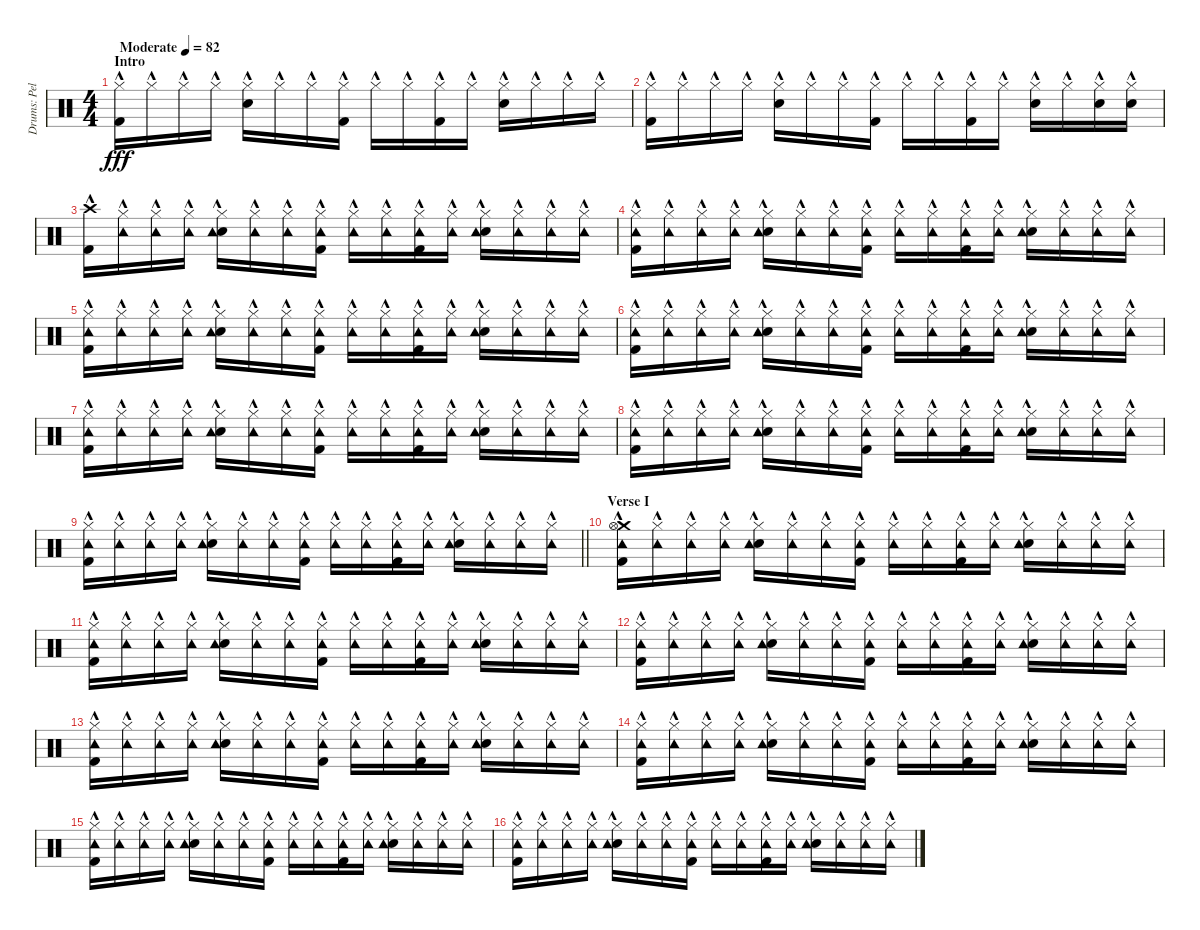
\track ("Drums: Pelle" "Drums: Pel") {instrument percussion}
\staff {score}
\articulation defaults
\ts (4 4)
\section ("" "Intro")
\tempo (82 "Moderate")
\clef neutral
\ks c
("Hi-Hat (closed)"{hac} "Kick (hit) 2"{hac}).16{dy fff} "Hi-Hat (closed)"{hac}.16 "Hi-Hat (closed)"{hac}.16 "Hi-Hat (closed)"{hac}.16 ("Hi-Hat (closed)"{hac} "Snare (hit) 2"{hac}).16 "Hi-Hat (closed)"{hac}.16 "Hi-Hat (closed)"{hac}.16 ("Hi-Hat (closed)"{hac} "Kick (hit) 2"{hac}).16 "Hi-Hat (closed)"{hac}.16 "Hi-Hat (closed)"{hac}.16 ("Hi-Hat (closed)"{hac} "Kick (hit) 2"{hac}).16 "Hi-Hat (closed)"{hac}.16 ("Hi-Hat (closed)"{hac} "Snare (hit) 2"{hac}).16 "Hi-Hat (closed)"{hac}.16 "Hi-Hat (closed)"{hac}.16 "Hi-Hat (closed)"{hac}.16 |
("Hi-Hat (closed)"{hac} "Kick (hit) 2"{hac}).16 "Hi-Hat (closed)"{hac}.16 "Hi-Hat (closed)"{hac}.16 "Hi-Hat (closed)"{hac}.16 ("Hi-Hat (closed)"{hac} "Snare (hit) 2"{hac}).16 "Hi-Hat (closed)"{hac}.16 "Hi-Hat (closed)"{hac}.16 ("Hi-Hat (closed)"{hac} "Kick (hit) 2"{hac}).16 "Hi-Hat (closed)"{hac}.16 "Hi-Hat (closed)"{hac}.16 ("Hi-Hat (closed)"{hac} "Kick (hit) 2"{hac}).16 "Hi-Hat (closed)"{hac}.16 ("Hi-Hat (closed)"{hac} "Snare (hit) 2"{hac}).16 "Hi-Hat (closed)"{hac}.16 ("Hi-Hat (closed)"{hac} "Snare (hit) 2"{hac}).16 ("Hi-Hat (closed)"{hac} "Snare (hit) 2"{hac}).16 |
("Crash high (hit)"{hac} "Kick (hit) 2"{hac}).16 ("Hi-Hat (closed)"{hac} "Tambourine (hit)"{hac}).16 ("Hi-Hat (closed)"{hac} "Tambourine (hit)"{hac}).16 ("Hi-Hat (closed)"{hac} "Tambourine (hit)"{hac}).16 ("Hi-Hat (closed)"{hac} "Snare (hit) 2"{hac} "Tambourine (hit)"{hac}).16 ("Hi-Hat (closed)"{hac} "Tambourine (hit)"{hac}).16 ("Hi-Hat (closed)"{hac} "Tambourine (hit)"{hac}).16 ("Hi-Hat (closed)"{hac} "Tambourine (hit)"{hac} "Kick (hit) 2"{hac}).16 ("Hi-Hat (closed)"{hac} "Tambourine (hit)"{hac}).16 ("Hi-Hat (closed)"{hac} "Tambourine (hit)"{hac}).16 ("Hi-Hat (closed)"{hac} "Tambourine (hit)"{hac} "Kick (hit) 2"{hac}).16 ("Hi-Hat (closed)"{hac} "Tambourine (hit)"{hac}).16 ("Hi-Hat (closed)"{hac} "Snare (hit) 2"{hac} "Tambourine (hit)"{hac}).16 ("Hi-Hat (closed)"{hac} "Tambourine (hit)"{hac}).16 ("Hi-Hat (closed)"{hac} "Tambourine (hit)"{hac}).16 ("Hi-Hat (closed)"{hac} "Tambourine (hit)"{hac}).16 |
("Hi-Hat (closed)"{hac} "Tambourine (hit)"{hac} "Kick (hit) 2"{hac}).16 ("Hi-Hat (closed)"{hac} "Tambourine (hit)"{hac}).16 ("Hi-Hat (closed)"{hac} "Tambourine (hit)"{hac}).16 ("Hi-Hat (closed)"{hac} "Tambourine (hit)"{hac}).16 ("Hi-Hat (closed)"{hac} "Snare (hit) 2"{hac} "Tambourine (hit)"{hac}).16 ("Hi-Hat (closed)"{hac} "Tambourine (hit)"{hac}).16 ("Hi-Hat (closed)"{hac} "Tambourine (hit)"{hac}).16 ("Hi-Hat (closed)"{hac} "Tambourine (hit)"{hac} "Kick (hit) 2"{hac}).16 ("Hi-Hat (closed)"{hac} "Tambourine (hit)"{hac}).16 ("Hi-Hat (closed)"{hac} "Tambourine (hit)"{hac}).16 ("Hi-Hat (closed)"{hac} "Tambourine (hit)"{hac} "Kick (hit) 2"{hac}).16 ("Hi-Hat (closed)"{hac} "Tambourine (hit)"{hac}).16 ("Hi-Hat (closed)"{hac} "Snare (hit) 2"{hac} "Tambourine (hit)"{hac}).16 ("Hi-Hat (closed)"{hac} "Tambourine (hit)"{hac}).16 ("Hi-Hat (closed)"{hac} "Tambourine (hit)"{hac}).16 ("Hi-Hat (closed)"{hac} "Tambourine (hit)"{hac}).16 |
("Hi-Hat (closed)"{hac} "Tambourine (hit)"{hac} "Kick (hit) 2"{hac}).16 ("Hi-Hat (closed)"{hac} "Tambourine (hit)"{hac}).16 ("Hi-Hat (closed)"{hac} "Tambourine (hit)"{hac}).16 ("Hi-Hat (closed)"{hac} "Tambourine (hit)"{hac}).16 ("Hi-Hat (closed)"{hac} "Snare (hit) 2"{hac} "Tambourine (hit)"{hac}).16 ("Hi-Hat (closed)"{hac} "Tambourine (hit)"{hac}).16 ("Hi-Hat (closed)"{hac} "Tambourine (hit)"{hac}).16 ("Hi-Hat (closed)"{hac} "Tambourine (hit)"{hac} "Kick (hit) 2"{hac}).16 ("Hi-Hat (closed)"{hac} "Tambourine (hit)"{hac}).16 ("Hi-Hat (closed)"{hac} "Tambourine (hit)"{hac}).16 ("Hi-Hat (closed)"{hac} "Tambourine (hit)"{hac} "Kick (hit) 2"{hac}).16 ("Hi-Hat (closed)"{hac} "Tambourine (hit)"{hac}).16 ("Hi-Hat (closed)"{hac} "Snare (hit) 2"{hac} "Tambourine (hit)"{hac}).16 ("Hi-Hat (closed)"{hac} "Tambourine (hit)"{hac}).16 ("Hi-Hat (closed)"{hac} "Tambourine (hit)"{hac}).16 ("Hi-Hat (closed)"{hac} "Tambourine (hit)"{hac}).16 |
("Hi-Hat (closed)"{hac} "Tambourine (hit)"{hac} "Kick (hit) 2"{hac}).16 ("Hi-Hat (closed)"{hac} "Tambourine (hit)"{hac}).16 ("Hi-Hat (closed)"{hac} "Tambourine (hit)"{hac}).16 ("Hi-Hat (closed)"{hac} "Tambourine (hit)"{hac}).16 ("Hi-Hat (closed)"{hac} "Snare (hit) 2"{hac} "Tambourine (hit)"{hac}).16 ("Hi-Hat (closed)"{hac} "Tambourine (hit)"{hac}).16 ("Hi-Hat (closed)"{hac} "Tambourine (hit)"{hac}).16 ("Hi-Hat (closed)"{hac} "Tambourine (hit)"{hac} "Kick (hit) 2"{hac}).16 ("Hi-Hat (closed)"{hac} "Tambourine (hit)"{hac}).16 ("Hi-Hat (closed)"{hac} "Tambourine (hit)"{hac}).16 ("Hi-Hat (closed)"{hac} "Tambourine (hit)"{hac} "Kick (hit) 2"{hac}).16 ("Hi-Hat (closed)"{hac} "Tambourine (hit)"{hac}).16 ("Hi-Hat (closed)"{hac} "Snare (hit) 2"{hac} "Tambourine (hit)"{hac}).16 ("Hi-Hat (closed)"{hac} "Tambourine (hit)"{hac}).16 ("Hi-Hat (closed)"{hac} "Tambourine (hit)"{hac}).16 ("Hi-Hat (closed)"{hac} "Tambourine (hit)"{hac}).16 |
("Hi-Hat (closed)"{hac} "Tambourine (hit)"{hac} "Kick (hit) 2"{hac}).16 ("Hi-Hat (closed)"{hac} "Tambourine (hit)"{hac}).16 ("Hi-Hat (closed)"{hac} "Tambourine (hit)"{hac}).16 ("Hi-Hat (closed)"{hac} "Tambourine (hit)"{hac}).16 ("Hi-Hat (closed)"{hac} "Snare (hit) 2"{hac} "Tambourine (hit)"{hac}).16 ("Hi-Hat (closed)"{hac} "Tambourine (hit)"{hac}).16 ("Hi-Hat (closed)"{hac} "Tambourine (hit)"{hac}).16 ("Hi-Hat (closed)"{hac} "Tambourine (hit)"{hac} "Kick (hit) 2"{hac}).16 ("Hi-Hat (closed)"{hac} "Tambourine (hit)"{hac}).16 ("Hi-Hat (closed)"{hac} "Tambourine (hit)"{hac}).16 ("Hi-Hat (closed)"{hac} "Tambourine (hit)"{hac} "Kick (hit) 2"{hac}).16 ("Hi-Hat (closed)"{hac} "Tambourine (hit)"{hac}).16 ("Hi-Hat (closed)"{hac} "Snare (hit) 2"{hac} "Tambourine (hit)"{hac}).16 ("Hi-Hat (closed)"{hac} "Tambourine (hit)"{hac}).16 ("Hi-Hat (closed)"{hac} "Tambourine (hit)"{hac}).16 ("Hi-Hat (closed)"{hac} "Tambourine (hit)"{hac}).16 |
("Hi-Hat (closed)"{hac} "Tambourine (hit)"{hac} "Kick (hit) 2"{hac}).16 ("Hi-Hat (closed)"{hac} "Tambourine (hit)"{hac}).16 ("Hi-Hat (closed)"{hac} "Tambourine (hit)"{hac}).16 ("Hi-Hat (closed)"{hac} "Tambourine (hit)"{hac}).16 ("Hi-Hat (closed)"{hac} "Snare (hit) 2"{hac} "Tambourine (hit)"{hac}).16 ("Hi-Hat (closed)"{hac} "Tambourine (hit)"{hac}).16 ("Hi-Hat (closed)"{hac} "Tambourine (hit)"{hac}).16 ("Hi-Hat (closed)"{hac} "Tambourine (hit)"{hac} "Kick (hit) 2"{hac}).16 ("Hi-Hat (closed)"{hac} "Tambourine (hit)"{hac}).16 ("Hi-Hat (closed)"{hac} "Tambourine (hit)"{hac}).16 ("Hi-Hat (closed)"{hac} "Tambourine (hit)"{hac} "Kick (hit) 2"{hac}).16 ("Hi-Hat (closed)"{hac} "Tambourine (hit)"{hac}).16 ("Hi-Hat (closed)"{hac} "Snare (hit) 2"{hac} "Tambourine (hit)"{hac}).16 ("Hi-Hat (closed)"{hac} "Tambourine (hit)"{hac}).16 ("Hi-Hat (closed)"{hac} "Tambourine (hit)"{hac}).16 ("Hi-Hat (closed)"{hac} "Tambourine (hit)"{hac}).16 |
\barLineRight lightlight
("Hi-Hat (closed)"{hac} "Tambourine (hit)"{hac} "Kick (hit) 2"{hac}).16 ("Hi-Hat (closed)"{hac} "Tambourine (hit)"{hac}).16 ("Hi-Hat (closed)"{hac} "Tambourine (hit)"{hac}).16 ("Hi-Hat (closed)"{hac} "Tambourine (hit)"{hac}).16 ("Hi-Hat (closed)"{hac} "Snare (hit) 2"{hac} "Tambourine (hit)"{hac}).16 ("Hi-Hat (closed)"{hac} "Tambourine (hit)"{hac}).16 ("Hi-Hat (closed)"{hac} "Tambourine (hit)"{hac}).16 ("Hi-Hat (closed)"{hac} "Tambourine (hit)"{hac} "Kick (hit) 2"{hac}).16 ("Hi-Hat (closed)"{hac} "Tambourine (hit)"{hac}).16 ("Hi-Hat (closed)"{hac} "Tambourine (hit)"{hac}).16 ("Hi-Hat (closed)"{hac} "Tambourine (hit)"{hac} "Kick (hit) 2"{hac}).16 ("Hi-Hat (closed)"{hac} "Tambourine (hit)"{hac}).16 ("Hi-Hat (closed)"{hac} "Snare (hit) 2"{hac} "Tambourine (hit)"{hac}).16 ("Hi-Hat (closed)"{hac} "Tambourine (hit)"{hac}).16 ("Hi-Hat (closed)"{hac} "Tambourine (hit)"{hac}).16 ("Hi-Hat (closed)"{hac} "Tambourine (hit)"{hac}).16 |
\section ("" "Verse I")
("Crash medium (hit)"{hac} "Hi-Hat (open)"{hac} "Tambourine (hit)"{hac} "Kick (hit) 2"{hac}).16 ("Hi-Hat (closed)"{hac} "Tambourine (hit)"{hac}).16 ("Hi-Hat (closed)"{hac} "Tambourine (hit)"{hac}).16 ("Hi-Hat (closed)"{hac} "Tambourine (hit)"{hac}).16 ("Hi-Hat (closed)"{hac} "Snare (hit) 2"{hac} "Tambourine (hit)"{hac}).16 ("Hi-Hat (closed)"{hac} "Tambourine (hit)"{hac}).16 ("Hi-Hat (closed)"{hac} "Tambourine (hit)"{hac}).16 ("Hi-Hat (closed)"{hac} "Tambourine (hit)"{hac} "Kick (hit) 2"{hac}).16 ("Hi-Hat (closed)"{hac} "Tambourine (hit)"{hac}).16 ("Hi-Hat (closed)"{hac} "Tambourine (hit)"{hac}).16 ("Hi-Hat (closed)"{hac} "Tambourine (hit)"{hac} "Kick (hit) 2"{hac}).16 ("Hi-Hat (closed)"{hac} "Tambourine (hit)"{hac}).16 ("Hi-Hat (closed)"{hac} "Snare (hit) 2"{hac} "Tambourine (hit)"{hac}).16 ("Hi-Hat (closed)"{hac} "Tambourine (hit)"{hac}).16 ("Hi-Hat (closed)"{hac} "Tambourine (hit)"{hac}).16 ("Hi-Hat (closed)"{hac} "Tambourine (hit)"{hac}).16 |
("Hi-Hat (closed)"{hac} "Tambourine (hit)"{hac} "Kick (hit) 2"{hac}).16 ("Hi-Hat (closed)"{hac} "Tambourine (hit)"{hac}).16 ("Hi-Hat (closed)"{hac} "Tambourine (hit)"{hac}).16 ("Hi-Hat (closed)"{hac} "Tambourine (hit)"{hac}).16 ("Hi-Hat (closed)"{hac} "Snare (hit) 2"{hac} "Tambourine (hit)"{hac}).16 ("Hi-Hat (closed)"{hac} "Tambourine (hit)"{hac}).16 ("Hi-Hat (closed)"{hac} "Tambourine (hit)"{hac}).16 ("Hi-Hat (closed)"{hac} "Tambourine (hit)"{hac} "Kick (hit) 2"{hac}).16 ("Hi-Hat (closed)"{hac} "Tambourine (hit)"{hac}).16 ("Hi-Hat (closed)"{hac} "Tambourine (hit)"{hac}).16 ("Hi-Hat (closed)"{hac} "Tambourine (hit)"{hac} "Kick (hit) 2"{hac}).16 ("Hi-Hat (closed)"{hac} "Tambourine (hit)"{hac}).16 ("Hi-Hat (closed)"{hac} "Snare (hit) 2"{hac} "Tambourine (hit)"{hac}).16 ("Hi-Hat (closed)"{hac} "Tambourine (hit)"{hac}).16 ("Hi-Hat (closed)"{hac} "Tambourine (hit)"{hac}).16 ("Hi-Hat (closed)"{hac} "Tambourine (hit)"{hac}).16 |
("Hi-Hat (closed)"{hac} "Tambourine (hit)"{hac} "Kick (hit) 2"{hac}).16 ("Hi-Hat (closed)"{hac} "Tambourine (hit)"{hac}).16 ("Hi-Hat (closed)"{hac} "Tambourine (hit)"{hac}).16 ("Hi-Hat (closed)"{hac} "Tambourine (hit)"{hac}).16 ("Hi-Hat (closed)"{hac} "Snare (hit) 2"{hac} "Tambourine (hit)"{hac}).16 ("Hi-Hat (closed)"{hac} "Tambourine (hit)"{hac}).16 ("Hi-Hat (closed)"{hac} "Tambourine (hit)"{hac}).16 ("Hi-Hat (closed)"{hac} "Tambourine (hit)"{hac} "Kick (hit) 2"{hac}).16 ("Hi-Hat (closed)"{hac} "Tambourine (hit)"{hac}).16 ("Hi-Hat (closed)"{hac} "Tambourine (hit)"{hac}).16 ("Hi-Hat (closed)"{hac} "Tambourine (hit)"{hac} "Kick (hit) 2"{hac}).16 ("Hi-Hat (closed)"{hac} "Tambourine (hit)"{hac}).16 ("Hi-Hat (closed)"{hac} "Snare (hit) 2"{hac} "Tambourine (hit)"{hac}).16 ("Hi-Hat (closed)"{hac} "Tambourine (hit)"{hac}).16 ("Hi-Hat (closed)"{hac} "Tambourine (hit)"{hac}).16 ("Hi-Hat (closed)"{hac} "Tambourine (hit)"{hac}).16 |
("Hi-Hat (closed)"{hac} "Tambourine (hit)"{hac} "Kick (hit) 2"{hac}).16 ("Hi-Hat (closed)"{hac} "Tambourine (hit)"{hac}).16 ("Hi-Hat (closed)"{hac} "Tambourine (hit)"{hac}).16 ("Hi-Hat (closed)"{hac} "Tambourine (hit)"{hac}).16 ("Hi-Hat (closed)"{hac} "Snare (hit) 2"{hac} "Tambourine (hit)"{hac}).16 ("Hi-Hat (closed)"{hac} "Tambourine (hit)"{hac}).16 ("Hi-Hat (closed)"{hac} "Tambourine (hit)"{hac}).16 ("Hi-Hat (closed)"{hac} "Tambourine (hit)"{hac} "Kick (hit) 2"{hac}).16 ("Hi-Hat (closed)"{hac} "Tambourine (hit)"{hac}).16 ("Hi-Hat (closed)"{hac} "Tambourine (hit)"{hac}).16 ("Hi-Hat (closed)"{hac} "Tambourine (hit)"{hac} "Kick (hit) 2"{hac}).16 ("Hi-Hat (closed)"{hac} "Tambourine (hit)"{hac}).16 ("Hi-Hat (closed)"{hac} "Snare (hit) 2"{hac} "Tambourine (hit)"{hac}).16 ("Hi-Hat (closed)"{hac} "Tambourine (hit)"{hac}).16 ("Hi-Hat (closed)"{hac} "Tambourine (hit)"{hac}).16 ("Hi-Hat (closed)"{hac} "Tambourine (hit)"{hac}).16 |
("Hi-Hat (closed)"{hac} "Tambourine (hit)"{hac} "Kick (hit) 2"{hac}).16 ("Hi-Hat (closed)"{hac} "Tambourine (hit)"{hac}).16 ("Hi-Hat (closed)"{hac} "Tambourine (hit)"{hac}).16 ("Hi-Hat (closed)"{hac} "Tambourine (hit)"{hac}).16 ("Hi-Hat (closed)"{hac} "Snare (hit) 2"{hac} "Tambourine (hit)"{hac}).16 ("Hi-Hat (closed)"{hac} "Tambourine (hit)"{hac}).16 ("Hi-Hat (closed)"{hac} "Tambourine (hit)"{hac}).16 ("Hi-Hat (closed)"{hac} "Tambourine (hit)"{hac} "Kick (hit) 2"{hac}).16 ("Hi-Hat (closed)"{hac} "Tambourine (hit)"{hac}).16 ("Hi-Hat (closed)"{hac} "Tambourine (hit)"{hac}).16 ("Hi-Hat (closed)"{hac} "Tambourine (hit)"{hac} "Kick (hit) 2"{hac}).16 ("Hi-Hat (closed)"{hac} "Tambourine (hit)"{hac}).16 ("Hi-Hat (closed)"{hac} "Snare (hit) 2"{hac} "Tambourine (hit)"{hac}).16 ("Hi-Hat (closed)"{hac} "Tambourine (hit)"{hac}).16 ("Hi-Hat (closed)"{hac} "Tambourine (hit)"{hac}).16 ("Hi-Hat (closed)"{hac} "Tambourine (hit)"{hac}).16 |
("Hi-Hat (closed)"{hac} "Tambourine (hit)"{hac} "Kick (hit) 2"{hac}).16 ("Hi-Hat (closed)"{hac} "Tambourine (hit)"{hac}).16 ("Hi-Hat (closed)"{hac} "Tambourine (hit)"{hac}).16 ("Hi-Hat (closed)"{hac} "Tambourine (hit)"{hac}).16 ("Hi-Hat (closed)"{hac} "Snare (hit) 2"{hac} "Tambourine (hit)"{hac}).16 ("Hi-Hat (closed)"{hac} "Tambourine (hit)"{hac}).16 ("Hi-Hat (closed)"{hac} "Tambourine (hit)"{hac}).16 ("Hi-Hat (closed)"{hac} "Tambourine (hit)"{hac} "Kick (hit) 2"{hac}).16 ("Hi-Hat (closed)"{hac} "Tambourine (hit)"{hac}).16 ("Hi-Hat (closed)"{hac} "Tambourine (hit)"{hac}).16 ("Hi-Hat (closed)"{hac} "Tambourine (hit)"{hac} "Kick (hit) 2"{hac}).16 ("Hi-Hat (closed)"{hac} "Tambourine (hit)"{hac}).16 ("Hi-Hat (closed)"{hac} "Snare (hit) 2"{hac} "Tambourine (hit)"{hac}).16 ("Hi-Hat (closed)"{hac} "Tambourine (hit)"{hac}).16 ("Hi-Hat (closed)"{hac} "Tambourine (hit)"{hac}).16 ("Hi-Hat (closed)"{hac} "Tambourine (hit)"{hac}).16 |
("Hi-Hat (closed)"{hac} "Tambourine (hit)"{hac} "Kick (hit) 2"{hac}).16 ("Hi-Hat (closed)"{hac} "Tambourine (hit)"{hac}).16 ("Hi-Hat (closed)"{hac} "Tambourine (hit)"{hac}).16 ("Hi-Hat (closed)"{hac} "Tambourine (hit)"{hac}).16 ("Hi-Hat (closed)"{hac} "Snare (hit) 2"{hac} "Tambourine (hit)"{hac}).16 ("Hi-Hat (closed)"{hac} "Tambourine (hit)"{hac}).16 ("Hi-Hat (closed)"{hac} "Tambourine (hit)"{hac}).16 ("Hi-Hat (closed)"{hac} "Tambourine (hit)"{hac} "Kick (hit) 2"{hac}).16 ("Hi-Hat (closed)"{hac} "Tambourine (hit)"{hac}).16 ("Hi-Hat (closed)"{hac} "Tambourine (hit)"{hac}).16 ("Hi-Hat (closed)"{hac} "Tambourine (hit)"{hac} "Kick (hit) 2"{hac}).16 ("Hi-Hat (closed)"{hac} "Tambourine (hit)"{hac}).16 ("Hi-Hat (closed)"{hac} "Snare (hit) 2"{hac} "Tambourine (hit)"{hac}).16 ("Hi-Hat (closed)"{hac} "Tambourine (hit)"{hac}).16 ("Hi-Hat (closed)"{hac} "Tambourine (hit)"{hac}).16 ("Hi-Hat (closed)"{hac} "Tambourine (hit)"{hac}).16
